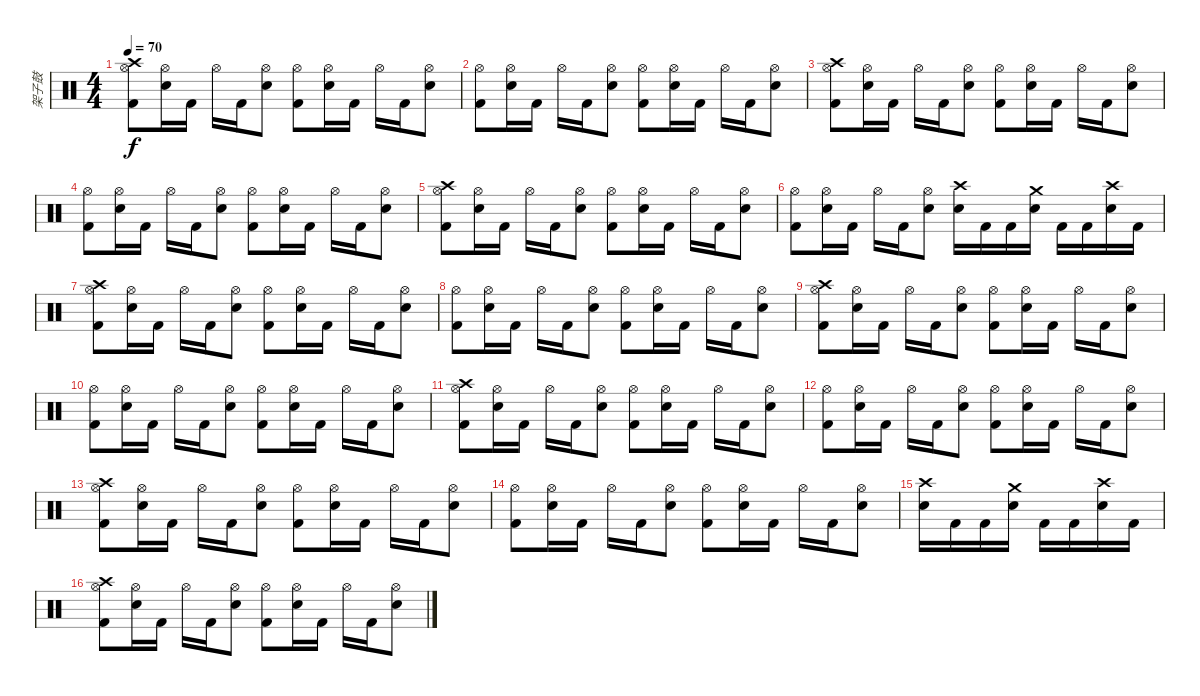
\track ("架子鼓" "架子鼓") {instrument percussion}
\staff {score}
\articulation defaults
\ts (4 4)
\tempo 70
\clef neutral
\ks c
("Crash high (hit)" "Hi-Hat (open)" "Kick (hit) 2").8{dy f} ("Hi-Hat (open)" "Snare (hit) 2").16 "Kick (hit) 2".16 "Hi-Hat (open)".16 "Kick (hit) 2".16 ("Hi-Hat (open)" "Snare (hit) 2").8 ("Hi-Hat (open)" "Kick (hit) 2").8 ("Hi-Hat (open)" "Snare (hit) 2").16 "Kick (hit) 2".16 "Hi-Hat (open)".16 "Kick (hit) 2".16 ("Hi-Hat (open)" "Snare (hit) 2").8 |
("Hi-Hat (open)" "Kick (hit) 2").8 ("Hi-Hat (open)" "Snare (hit) 2").16 "Kick (hit) 2".16 "Hi-Hat (open)".16 "Kick (hit) 2".16 ("Hi-Hat (open)" "Snare (hit) 2").8 ("Hi-Hat (open)" "Kick (hit) 2").8 ("Hi-Hat (open)" "Snare (hit) 2").16 "Kick (hit) 2".16 "Hi-Hat (open)".16 "Kick (hit) 2".16 ("Hi-Hat (open)" "Snare (hit) 2").8 |
("Crash high (hit)" "Hi-Hat (open)" "Kick (hit) 2").8 ("Hi-Hat (open)" "Snare (hit) 2").16 "Kick (hit) 2".16 "Hi-Hat (open)".16 "Kick (hit) 2".16 ("Hi-Hat (open)" "Snare (hit) 2").8 ("Hi-Hat (open)" "Kick (hit) 2").8 ("Hi-Hat (open)" "Snare (hit) 2").16 "Kick (hit) 2".16 "Hi-Hat (open)".16 "Kick (hit) 2".16 ("Hi-Hat (open)" "Snare (hit) 2").8 |
("Hi-Hat (open)" "Kick (hit) 2").8 ("Hi-Hat (open)" "Snare (hit) 2").16 "Kick (hit) 2".16 "Hi-Hat (open)".16 "Kick (hit) 2".16 ("Hi-Hat (open)" "Snare (hit) 2").8 ("Hi-Hat (open)" "Kick (hit) 2").8 ("Hi-Hat (open)" "Snare (hit) 2").16 "Kick (hit) 2".16 "Hi-Hat (open)".16 "Kick (hit) 2".16 ("Hi-Hat (open)" "Snare (hit) 2").8 |
("Crash high (hit)" "Hi-Hat (open)" "Kick (hit) 2").8 ("Hi-Hat (open)" "Snare (hit) 2").16 "Kick (hit) 2".16 "Hi-Hat (open)".16 "Kick (hit) 2".16 ("Hi-Hat (open)" "Snare (hit) 2").8 ("Hi-Hat (open)" "Kick (hit) 2").8 ("Hi-Hat (open)" "Snare (hit) 2").16 "Kick (hit) 2".16 "Hi-Hat (open)".16 "Kick (hit) 2".16 ("Hi-Hat (open)" "Snare (hit) 2").8 |
("Hi-Hat (open)" "Kick (hit) 2").8 ("Hi-Hat (open)" "Snare (hit) 2").16 "Kick (hit) 2".16 "Hi-Hat (open)".16 "Kick (hit) 2".16 ("Hi-Hat (open)" "Snare (hit) 2").8 ("Crash high (hit)" "Snare (hit) 2").16 "Kick (hit) 2".16 "Kick (hit) 2".16 ("Crash medium (hit)" "Snare (hit) 2").16 "Kick (hit) 2".16 "Kick (hit) 2".16 ("Crash high (hit)" "Snare (hit) 2").16 "Kick (hit) 2".16 |
("Crash high (hit)" "Hi-Hat (open)" "Kick (hit) 2").8 ("Hi-Hat (open)" "Snare (hit) 2").16 "Kick (hit) 2".16 "Hi-Hat (open)".16 "Kick (hit) 2".16 ("Hi-Hat (open)" "Snare (hit) 2").8 ("Hi-Hat (open)" "Kick (hit) 2").8 ("Hi-Hat (open)" "Snare (hit) 2").16 "Kick (hit) 2".16 "Hi-Hat (open)".16 "Kick (hit) 2".16 ("Hi-Hat (open)" "Snare (hit) 2").8 |
("Hi-Hat (open)" "Kick (hit) 2").8 ("Hi-Hat (open)" "Snare (hit) 2").16 "Kick (hit) 2".16 "Hi-Hat (open)".16 "Kick (hit) 2".16 ("Hi-Hat (open)" "Snare (hit) 2").8 ("Hi-Hat (open)" "Kick (hit) 2").8 ("Hi-Hat (open)" "Snare (hit) 2").16 "Kick (hit) 2".16 "Hi-Hat (open)".16 "Kick (hit) 2".16 ("Hi-Hat (open)" "Snare (hit) 2").8 |
("Crash high (hit)" "Hi-Hat (open)" "Kick (hit) 2").8 ("Hi-Hat (open)" "Snare (hit) 2").16 "Kick (hit) 2".16 "Hi-Hat (open)".16 "Kick (hit) 2".16 ("Hi-Hat (open)" "Snare (hit) 2").8 ("Hi-Hat (open)" "Kick (hit) 2").8 ("Hi-Hat (open)" "Snare (hit) 2").16 "Kick (hit) 2".16 "Hi-Hat (open)".16 "Kick (hit) 2".16 ("Hi-Hat (open)" "Snare (hit) 2").8 |
("Hi-Hat (open)" "Kick (hit) 2").8 ("Hi-Hat (open)" "Snare (hit) 2").16 "Kick (hit) 2".16 "Hi-Hat (open)".16 "Kick (hit) 2".16 ("Hi-Hat (open)" "Snare (hit) 2").8 ("Hi-Hat (open)" "Kick (hit) 2").8 ("Hi-Hat (open)" "Snare (hit) 2").16 "Kick (hit) 2".16 "Hi-Hat (open)".16 "Kick (hit) 2".16 ("Hi-Hat (open)" "Snare (hit) 2").8 |
("Crash high (hit)" "Hi-Hat (open)" "Kick (hit) 2").8 ("Hi-Hat (open)" "Snare (hit) 2").16 "Kick (hit) 2".16 "Hi-Hat (open)".16 "Kick (hit) 2".16 ("Hi-Hat (open)" "Snare (hit) 2").8 ("Hi-Hat (open)" "Kick (hit) 2").8 ("Hi-Hat (open)" "Snare (hit) 2").16 "Kick (hit) 2".16 "Hi-Hat (open)".16 "Kick (hit) 2".16 ("Hi-Hat (open)" "Snare (hit) 2").8 |
("Hi-Hat (open)" "Kick (hit) 2").8 ("Hi-Hat (open)" "Snare (hit) 2").16 "Kick (hit) 2".16 "Hi-Hat (open)".16 "Kick (hit) 2".16 ("Hi-Hat (open)" "Snare (hit) 2").8 ("Hi-Hat (open)" "Kick (hit) 2").8 ("Hi-Hat (open)" "Snare (hit) 2").16 "Kick (hit) 2".16 "Hi-Hat (open)".16 "Kick (hit) 2".16 ("Hi-Hat (open)" "Snare (hit) 2").8 |
("Crash high (hit)" "Hi-Hat (open)" "Kick (hit) 2").8 ("Hi-Hat (open)" "Snare (hit) 2").16 "Kick (hit) 2".16 "Hi-Hat (open)".16 "Kick (hit) 2".16 ("Hi-Hat (open)" "Snare (hit) 2").8 ("Hi-Hat (open)" "Kick (hit) 2").8 ("Hi-Hat (open)" "Snare (hit) 2").16 "Kick (hit) 2".16 "Hi-Hat (open)".16 "Kick (hit) 2".16 ("Hi-Hat (open)" "Snare (hit) 2").8 |
("Hi-Hat (open)" "Kick (hit) 2").8 ("Hi-Hat (open)" "Snare (hit) 2").16 "Kick (hit) 2".16 "Hi-Hat (open)".16 "Kick (hit) 2".16 ("Hi-Hat (open)" "Snare (hit) 2").8 ("Hi-Hat (open)" "Kick (hit) 2").8 ("Hi-Hat (open)" "Snare (hit) 2").16 "Kick (hit) 2".16 "Hi-Hat (open)".16 "Kick (hit) 2".16 ("Hi-Hat (open)" "Snare (hit) 2").8 |
("Crash high (hit)" "Snare (hit) 2").16 "Kick (hit) 2".16 "Kick (hit) 2".16 ("Crash medium (hit)" "Snare (hit) 2").16 "Kick (hit) 2".16 "Kick (hit) 2".16 ("Crash high (hit)" "Snare (hit) 2").16 "Kick (hit) 2".16 |
("Crash high (hit)" "Hi-Hat (open)" "Kick (hit) 2").8 ("Hi-Hat (open)" "Snare (hit) 2").16 "Kick (hit) 2".16 "Hi-Hat (open)".16 "Kick (hit) 2".16 ("Hi-Hat (open)" "Snare (hit) 2").8 ("Hi-Hat (open)" "Kick (hit) 2").8 ("Hi-Hat (open)" "Snare (hit) 2").16 "Kick (hit) 2".16 "Hi-Hat (open)".16 "Kick (hit) 2".16 ("Hi-Hat (open)" "Snare (hit) 2").8
